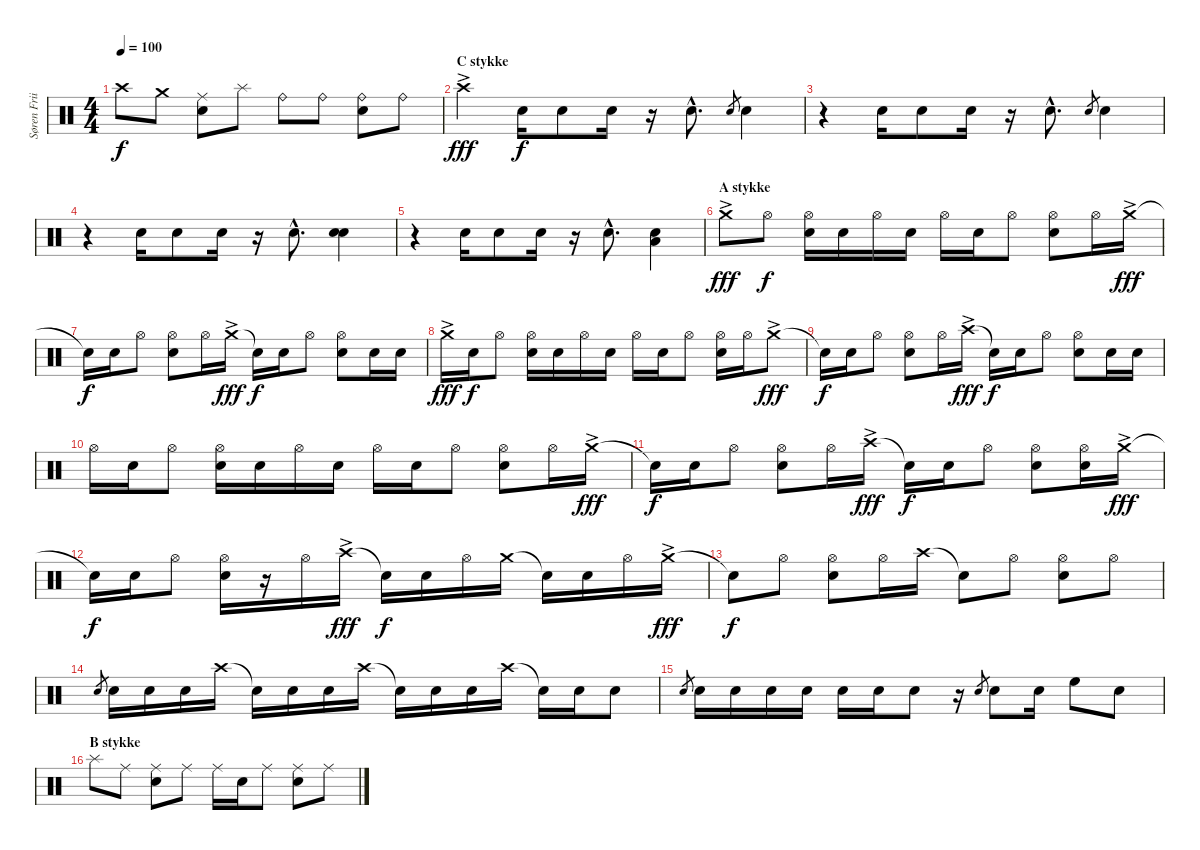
\track ("Søren Friis (Drums)" "Søren Frii") {instrument percussion}
\staff {score}
\articulation defaults
\ts (4 4)
\tempo 100
\clef neutral
\ks c "Crash high (hit)".8{dy f} "Crash medium (hit)".8
("Ride (middle)" "Snare (hit) 2").8 "Splash (hit)".8 "Ride (bell)".8 "Ride (bell)".8 ("Ride (bell)" "Snare (hit) 2").8 "Ride (bell)".8 |
\section ("" "C stykke")
"Crash high (hit)"{ac}.4{dy fff} "Snare (hit) 2".16{dy f} "Snare (hit) 2".8 "Snare (hit) 2".16 r.16 "Snare (hit) 2"{hac}.8{d} "Snare (hit) 2".8{gr} "Snare (hit) 2".4 |
r.4 "Snare (hit) 2".16 "Snare (hit) 2".8 "Snare (hit) 2".16 r.16 "Snare (hit) 2"{hac}.8{d} "Snare (hit) 2".8{gr} "Snare (hit) 2".4 |
r.4 "Snare (hit) 2".16 "Snare (hit) 2".8 "Snare (hit) 2".16 r.16 "Snare (hit) 2"{hac}.8{d} ("Snare (hit) 2" "Snare (hit) 2").4 |
r.4 "Snare (hit) 2".16 "Snare (hit) 2".8 "Snare (hit) 2".16 r.16 "Snare (hit) 2"{hac}.8{d} ("Snare (hit) 2" "Low Tom (hit)").4 |
\section ("" "A stykke")
"Crash medium (hit)"{ac}.8{dy fff} "Hi-Hat (open)".8{dy f} ("Hi-Hat (open)" "Snare (hit) 2").16 "Snare (hit) 2".16 "Hi-Hat (open)".16 "Snare (hit) 2".16 "Hi-Hat (open)".16 "Snare (hit) 2".16 "Hi-Hat (open)".8 ("Snare (hit) 2" "Hi-Hat (open)").8 "Hi-Hat (open)".16 "Crash medium (hit)"{ac}.16{dy fff} |
"Snare (hit)"{t}.16{dy f} "Snare (hit) 2".16 "Hi-Hat (open)".8 ("Hi-Hat (open)" "Snare (hit) 2").8 "Hi-Hat (open)".16 "Crash medium (hit)"{ac}.16{dy fff} "Snare (hit)"{t}.16{dy f} "Snare (hit) 2".16 "Hi-Hat (open)".8 ("Hi-Hat (open)" "Snare (hit) 2").8 "Snare (hit) 2".16 "Snare (hit) 2".16 |
"Crash medium (hit)"{ac}.16{dy fff} "Snare (hit) 2".16{dy f} "Hi-Hat (open)".8 ("Hi-Hat (open)" "Snare (hit) 2").16 "Snare (hit) 2".16 "Hi-Hat (open)".16 "Snare (hit) 2".16 "Hi-Hat (open)".16 "Snare (hit) 2".16 "Hi-Hat (open)".8 ("Hi-Hat (open)" "Snare (hit) 2").16 "Hi-Hat (open)".16 "Crash medium (hit)"{ac}.8{dy fff} |
"Snare (hit)"{t}.16{dy f} "Snare (hit) 2".16 "Hi-Hat (open)".8 ("Hi-Hat (open)" "Snare (hit) 2").8 "Hi-Hat (open)".16 "Crash high (hit)"{ac}.16{dy fff} "Snare (hit)"{t}.16{dy f} "Snare (hit) 2".16 "Hi-Hat (open)".8 ("Hi-Hat (open)" "Snare (hit) 2").8 "Snare (hit) 2".16 "Snare (hit) 2".16 |
"Hi-Hat (open)".16 "Snare (hit) 2".16 "Hi-Hat (open)".8 ("Hi-Hat (open)" "Snare (hit) 2").16 "Snare (hit) 2".16 "Hi-Hat (open)".16 "Snare (hit) 2".16 "Hi-Hat (open)".16 "Snare (hit) 2".16 "Hi-Hat (open)".8 ("Snare (hit) 2" "Hi-Hat (open)").8 "Hi-Hat (open)".16 "Crash medium (hit)"{ac}.16{dy fff} |
"Snare (hit)"{t}.16{dy f} "Snare (hit) 2".16 "Hi-Hat (open)".8 ("Hi-Hat (open)" "Snare (hit) 2").8 "Hi-Hat (open)".16 "Crash high (hit)"{ac}.16{dy fff} "Snare (hit)"{t}.16{dy f} "Snare (hit) 2".16 "Hi-Hat (open)".8 ("Hi-Hat (open)" "Snare (hit) 2").8 ("Hi-Hat (open)" "Snare (hit) 2").16 "Crash medium (hit)"{ac}.16{dy fff} |
"Snare (hit)"{t}.16{dy f} "Snare (hit) 2".16 "Hi-Hat (open)".8 ("Hi-Hat (open)" "Snare (hit) 2").16 r.16 "Hi-Hat (open)".16 "Crash high (hit)"{ac}.16{dy fff} "Snare (hit)"{t}.16{dy f} "Snare (hit) 2".16 "Hi-Hat (open)".16 "Crash medium (hit)".16 "Snare (hit)"{t}.16 "Snare (hit) 2".16 "Hi-Hat (open)".16 "Crash medium (hit)"{ac}.16{dy fff} |
"Snare (hit)"{t}.8{dy f} "Hi-Hat (open)".8 ("Hi-Hat (open)" "Snare (hit) 2").8 "Hi-Hat (open)".16 "Crash high (hit)".16 "Snare (hit)"{t}.8 "Hi-Hat (open)".8 ("Hi-Hat (open)" "Snare (hit) 2").8 "Hi-Hat (open)".8 |
"Snare (hit) 2".8{gr} "Snare (hit) 2".16 "Snare (hit) 2".16 "Snare (hit) 2".16 "Crash high (hit)".16 "Snare (hit)"{t}.16 "Snare (hit) 2".16 "Snare (hit) 2".16 "Crash high (hit)".16 "Snare (hit)"{t}.16 "Snare (hit) 2".16 "Snare (hit) 2".16 "Crash high (hit)".16 "Snare (hit)"{t}.16 "Snare (hit) 2".16 "Snare (hit) 2".8 |
"Snare (hit) 2".8{gr} "Snare (hit) 2".16 "Snare (hit) 2".16 "Snare (hit) 2".16 "Snare (hit) 2".16 "Snare (hit) 2".16 "Snare (hit) 2".16 "Snare (hit) 2".8 r.16 "Snare (hit) 2".8{gr} "Snare (hit) 2".8 "Snare (hit) 2".16 "High Floor Tom (hit)".8 "Snare (hit) 2".8 |
\section ("" "B stykke")
"Splash (hit)".8 "Ride (middle)".8 ("Ride (middle)" "Snare (hit) 2").8 "Ride (middle)".8 "Ride (middle)".16 "Snare (hit) 2".16 "Ride (middle)".8 ("Ride (middle)" "Snare (hit) 2").8 "Ride (middle)".8
